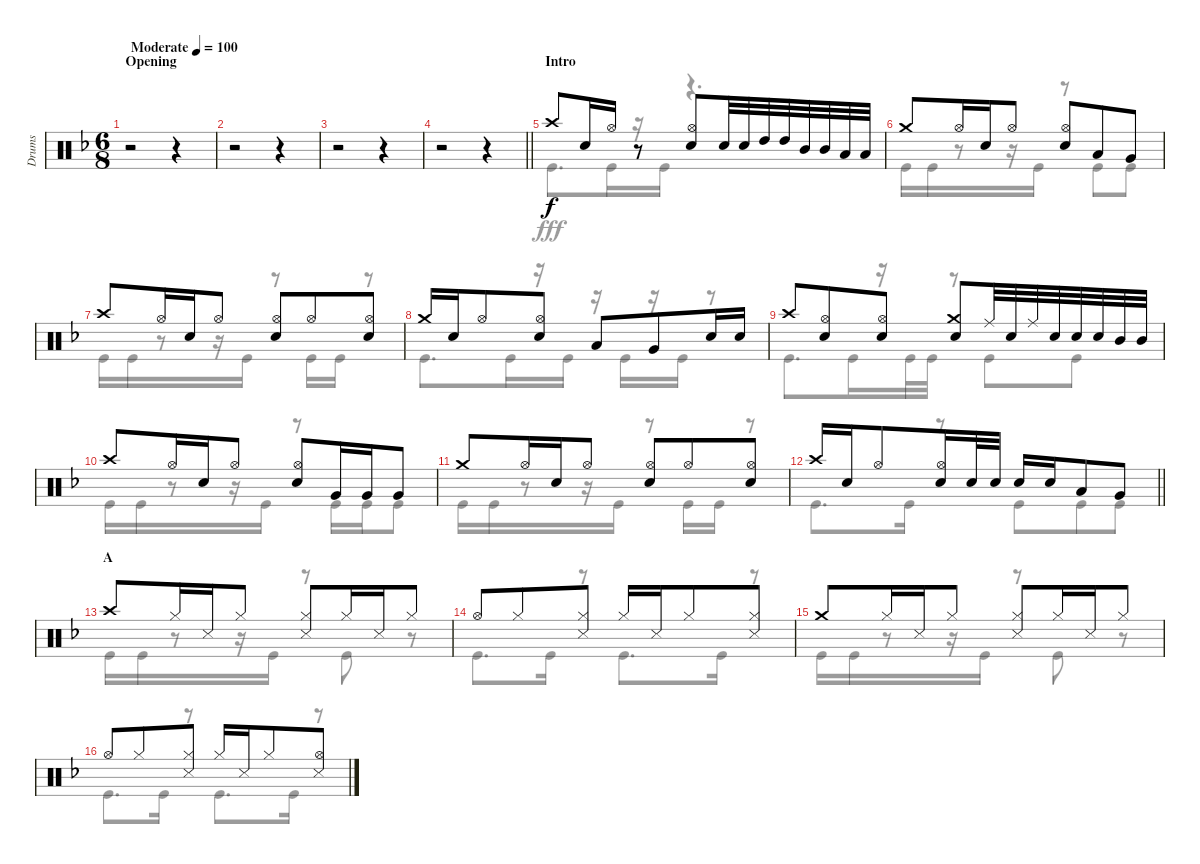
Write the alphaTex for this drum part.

\track ("Drums" "Drums") {instrument percussion}
\staff {score}
\articulation defaults
\voice
\ts (6 8)
\section ("" "Opening")
\tempo (100 "Moderate")
\clef neutral
\ks f
r.2{dy f} r.4 |
r.2 r.4 |
r.2 r.4 |
\barLineRight lightlight
r.2 r.4 |
\section ("" "Intro")
"Crash high (hit)".8 "Snare (hit) 2".16 "Hi-Hat (open)".16 r.8 ("Hi-Hat (open)" "Snare (hit) 2").8 "Snare (hit) 2".32 "Snare (hit) 2".32 "High Tom (hit)".32 "High Tom (hit)".32 "Mid Tom (hit)".32 "Mid Tom (hit)".32 "Low Tom (hit)".32 "Low Tom (hit)".32 |
"Crash medium (hit)".8 "Hi-Hat (open)".16 "Snare (hit) 2".16 "Hi-Hat (open)".8 ("Hi-Hat (open)" "Snare (hit) 2").8 "Low Tom (hit)".8 "Very Low Tom (hit)".8 |
"Crash high (hit)".8 "Hi-Hat (open)".16 "Snare (hit) 2".16 "Hi-Hat (open)".8 ("Hi-Hat (open)" "Snare (hit) 2").8 "Hi-Hat (open)".8 ("Hi-Hat (open)" "Snare (hit) 2").8 |
"Crash medium (hit)".16 "Snare (hit) 2".16 "Hi-Hat (open)".8 ("Hi-Hat (open)" "Snare (hit) 2").8 "Low Tom (hit)".8 "Very Low Tom (hit)".8 "Snare (hit) 2".16 "Snare (hit) 2".16 |
"Crash high (hit)".8 ("Hi-Hat (open)" "Snare (hit) 2").8 ("Hi-Hat (open)" "Snare (hit) 2").8 ("Crash medium (hit)" "Snare (hit) 2").8 "Ride (middle)".32 "Snare (hit) 2".32 "Ride (middle)".32 "Snare (hit) 2".32 "Snare (hit) 2".32 "Snare (hit) 2".32 "Mid Tom (hit)".32 "Mid Tom (hit)".32 |
"Crash high (hit)".8 "Hi-Hat (open)".16 "Snare (hit) 2".16 "Hi-Hat (open)".8 ("Hi-Hat (open)" "Snare (hit) 2").8 "Very Low Tom (hit)".16 "Very Low Tom (hit)".16 "Very Low Tom (hit)".8 |
"Crash medium (hit)".8 "Hi-Hat (open)".16 "Snare (hit) 2".16 "Hi-Hat (open)".8 ("Hi-Hat (open)" "Snare (hit) 2").8 "Hi-Hat (open)".8 ("Hi-Hat (open)" "Snare (hit) 2").8 |
\barLineRight lightlight "Crash high (hit)".16 "Snare (hit) 2".16 "Hi-Hat (open)".8
("Hi-Hat (open)" "Snare (hit) 2").16 "Snare (hit) 2".32 "Snare (hit) 2".32 "Snare (hit) 2".16 "Snare (hit) 2".16 "Low Tom (hit)".8 "Very Low Tom (hit)".8 |
\section ("" "A")
"Crash high (hit)".8 "Hi-Hat (closed)".16 "Snare (side stick) 3".16 "Hi-Hat (closed)".8 ("Hi-Hat (closed)" "Snare (side stick) 3").8 "Hi-Hat (closed)".16 "Snare (side stick) 3".16 "Hi-Hat (closed)".8 |
"Hi-Hat (open)".8 "Hi-Hat (closed)".8 ("Hi-Hat (closed)" "Snare (side stick) 3").8 "Hi-Hat (closed)".16 "Snare (side stick) 3".16 "Hi-Hat (closed)".8 ("Hi-Hat (closed)" "Snare (side stick) 3").8 |
"Crash medium (hit)".8 "Hi-Hat (closed)".16 "Snare (side stick) 3".16 "Hi-Hat (closed)".8 ("Hi-Hat (closed)" "Snare (side stick) 3").8 "Hi-Hat (closed)".16 "Snare (side stick) 3".16 "Hi-Hat (closed)".8 |
"Hi-Hat (open)".8 "Hi-Hat (closed)".8 ("Hi-Hat (closed)" "Snare (side stick) 3").8 "Hi-Hat (closed)".16 "Snare (side stick) 3".16 "Hi-Hat (closed)".8 ("Hi-Hat (open)" "Snare (side stick) 3").8
\voice
\clef neutral
\ottava regular
\simile none
\ks f
r.2{dy fff} r.4 |
r.2 r.4 |
r.2 r.4 |
\barLineRight lightlight
r.2 r.4 |
"Kick (hit)".8{d} "Kick (hit)".16 r.16 "Kick (hit)".16 r.4{d} |
"Kick (hit)".16 "Kick (hit)".16 r.8 r.16 "Kick (hit)".16 r.8 "Kick (hit)".8 "Kick (hit)".8 |
"Kick (hit)".16 "Kick (hit)".16 r.8 r.16 "Kick (hit)".16 r.8 "Kick (hit)".16 "Kick (hit)".16 r.8 |
"Kick (hit)".8{d} "Kick (hit)".16 r.16 "Kick (hit)".16 r.16 "Kick (hit)".16 r.16 "Kick (hit)".16 r.8 |
"Kick (hit)".8{d} "Kick (hit)".16 r.16 "Kick (hit)".32 "Kick (hit)".32 r.8 "Kick (hit)".8 "Kick (hit)".8 |
"Kick (hit)".16 "Kick (hit)".16 r.8 r.16 "Kick (hit)".16 r.8 "Kick (hit)".16 "Kick (hit)".16 "Kick (hit)".8 |
"Kick (hit)".16 "Kick (hit)".16 r.8 r.16 "Kick (hit)".16 r.8 "Kick (hit)".16 "Kick (hit)".16 r.8 |
\barLineRight lightlight "Kick (hit)".8{d} "Kick (hit)".16
r.8 "Kick (hit)".8 "Kick (hit)".8 "Kick (hit)".8 |
"Kick (hit)".16 "Kick (hit)".16 r.8 r.16 "Kick (hit)".16 r.8 "Kick (hit)".8 r.8 |
"Kick (hit)".8{d} "Kick (hit)".16 r.8 "Kick (hit)".8{d} "Kick (hit)".16 r.8 |
"Kick (hit)".16 "Kick (hit)".16 r.8 r.16 "Kick (hit)".16 r.8 "Kick (hit)".8 r.8 |
"Kick (hit)".8{d} "Kick (hit)".16 r.8 "Kick (hit)".8{d} "Kick (hit)".16 r.8
